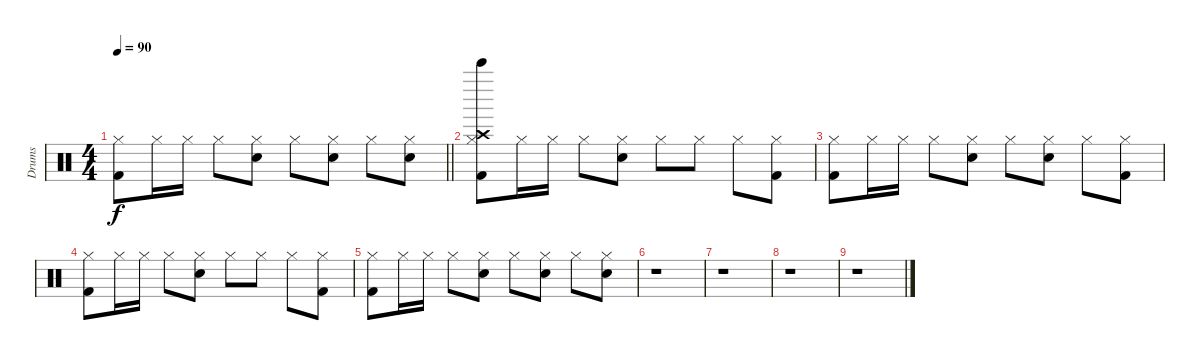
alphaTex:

\track ("Drums" "Drums") {instrument percussion}
\staff {score}
\articulation defaults
\ts (4 4)
\tempo 90
\clef neutral
\barLineRight lightlight
\ks c
("Hi-Hat (closed)" "Kick (hit) 2").8{dy f} "Hi-Hat (closed)".16 "Hi-Hat (closed)".16 "Hi-Hat (closed)".8 ("Hi-Hat (closed)" "Snare (hit) 2").8 "Hi-Hat (closed)".8 ("Hi-Hat (closed)" "Snare (hit) 2").8 "Hi-Hat (closed)".8 ("Hi-Hat (closed)" "Snare (hit) 2").8 |
("Hi-Hat (closed)" "Crash high (hit)" "Kick (hit) 2" "Bell Tree (hit)").8 "Hi-Hat (closed)".16 "Hi-Hat (closed)".16 "Hi-Hat (closed)".8 ("Hi-Hat (closed)" "Snare (hit) 2").8 "Hi-Hat (closed)".8 "Hi-Hat (closed)".8 "Hi-Hat (closed)".8 ("Hi-Hat (closed)" "Kick (hit) 2").8 |
("Hi-Hat (closed)" "Kick (hit) 2").8 "Hi-Hat (closed)".16 "Hi-Hat (closed)".16 "Hi-Hat (closed)".8 ("Hi-Hat (closed)" "Snare (hit) 2").8 "Hi-Hat (closed)".8 ("Hi-Hat (closed)" "Snare (hit) 2").8 "Hi-Hat (closed)".8 ("Hi-Hat (closed)" "Kick (hit) 2").8 |
("Hi-Hat (closed)" "Kick (hit) 2").8 "Hi-Hat (closed)".16 "Hi-Hat (closed)".16 "Hi-Hat (closed)".8 ("Hi-Hat (closed)" "Snare (hit) 2").8 "Hi-Hat (closed)".8 "Hi-Hat (closed)".8 "Hi-Hat (closed)".8 ("Hi-Hat (closed)" "Kick (hit) 2").8 |
("Hi-Hat (closed)" "Kick (hit) 2").8 "Hi-Hat (closed)".16 "Hi-Hat (closed)".16 "Hi-Hat (closed)".8 ("Hi-Hat (closed)" "Snare (hit) 2").8 "Hi-Hat (closed)".8 ("Hi-Hat (closed)" "Snare (hit) 2").8 "Hi-Hat (closed)".8 ("Hi-Hat (closed)" "Snare (hit) 2").8 |
r.1 |
r.1 |
r.1 |
r.1
